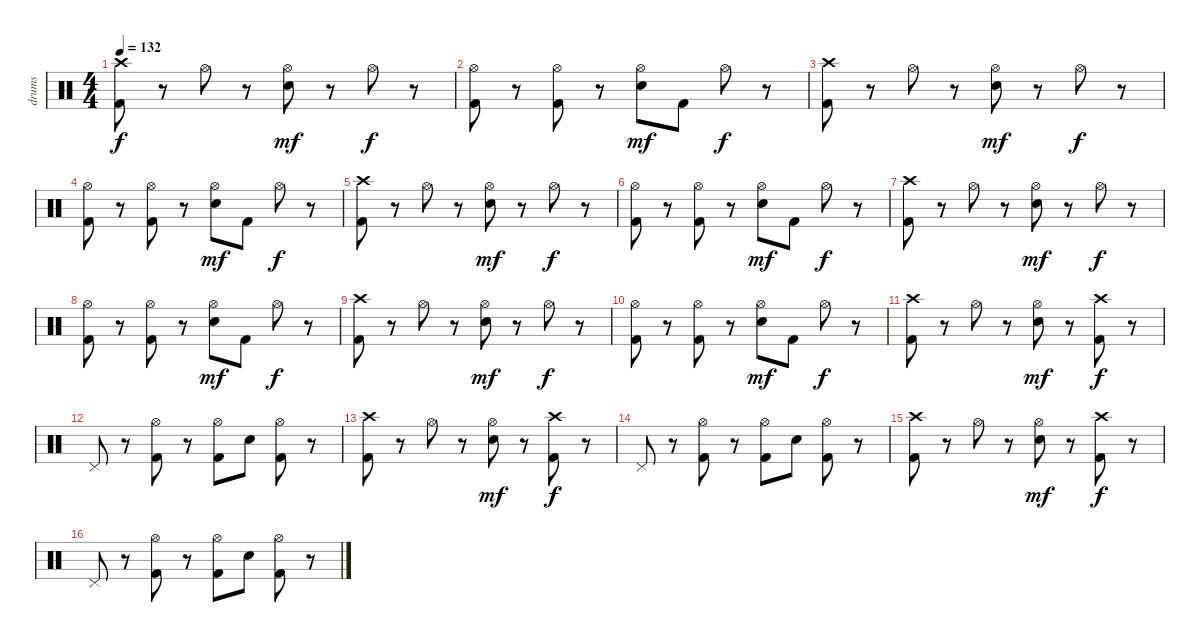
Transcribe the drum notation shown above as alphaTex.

\track ("drums" "drums") {instrument percussion}
\staff {score}
\articulation defaults
\ts (4 4)
\tempo 132
\clef neutral
\ks c
("Crash high (hit)" "Kick (hit) 2").8{dy f} r.8 "Hi-Hat (open)".8 r.8 ("Hi-Hat (open)" "Snare (hit) 2").8{dy mf} r.8 "Hi-Hat (open)".8{dy f} r.8 |
("Hi-Hat (open)" "Kick (hit) 2").8 r.8 ("Hi-Hat (open)" "Kick (hit) 2").8 r.8 ("Hi-Hat (open)" "Snare (hit) 2").8{dy mf} "Kick (hit) 2".8 "Hi-Hat (open)".8{dy f} r.8 |
("Crash high (hit)" "Kick (hit) 2").8 r.8 "Hi-Hat (open)".8 r.8 ("Hi-Hat (open)" "Snare (hit) 2").8{dy mf} r.8 "Hi-Hat (open)".8{dy f} r.8 |
("Hi-Hat (open)" "Kick (hit) 2").8 r.8 ("Hi-Hat (open)" "Kick (hit) 2").8 r.8 ("Hi-Hat (open)" "Snare (hit) 2").8{dy mf} "Kick (hit) 2".8 "Hi-Hat (open)".8{dy f} r.8 |
("Crash high (hit)" "Kick (hit) 2").8 r.8 "Hi-Hat (open)".8 r.8 ("Hi-Hat (open)" "Snare (hit) 2").8{dy mf} r.8 "Hi-Hat (open)".8{dy f} r.8 |
("Hi-Hat (open)" "Kick (hit) 2").8 r.8 ("Hi-Hat (open)" "Kick (hit) 2").8 r.8 ("Hi-Hat (open)" "Snare (hit) 2").8{dy mf} "Kick (hit) 2".8 "Hi-Hat (open)".8{dy f} r.8 |
("Crash high (hit)" "Kick (hit) 2").8 r.8 "Hi-Hat (open)".8 r.8 ("Hi-Hat (open)" "Snare (hit) 2").8{dy mf} r.8 "Hi-Hat (open)".8{dy f} r.8 |
("Hi-Hat (open)" "Kick (hit) 2").8 r.8 ("Hi-Hat (open)" "Kick (hit) 2").8 r.8 ("Hi-Hat (open)" "Snare (hit) 2").8{dy mf} "Kick (hit) 2".8 "Hi-Hat (open)".8{dy f} r.8 |
("Crash high (hit)" "Kick (hit) 2").8 r.8 "Hi-Hat (open)".8 r.8 ("Hi-Hat (open)" "Snare (hit) 2").8{dy mf} r.8 "Hi-Hat (open)".8{dy f} r.8 |
("Hi-Hat (open)" "Kick (hit) 2").8 r.8 ("Hi-Hat (open)" "Kick (hit) 2").8 r.8 ("Hi-Hat (open)" "Snare (hit) 2").8{dy mf} "Kick (hit) 2".8 "Hi-Hat (open)".8{dy f} r.8 |
("Crash high (hit)" "Kick (hit) 2").8 r.8 "Hi-Hat (open)".8 r.8 ("Hi-Hat (open)" "Snare (hit) 2").8{dy mf} r.8 ("Crash high (hit)" "Kick (hit) 2").8{dy f} r.8 |
"Pedal Hi-Hat (hit)".8 r.8 ("Hi-Hat (open)" "Kick (hit) 2").8 r.8 ("Hi-Hat (open)" "Kick (hit) 2").8 "Snare (hit) 2".8 ("Hi-Hat (open)" "Kick (hit) 2").8 r.8 |
("Crash high (hit)" "Kick (hit) 2").8 r.8 "Hi-Hat (open)".8 r.8 ("Hi-Hat (open)" "Snare (hit) 2").8{dy mf} r.8 ("Crash high (hit)" "Kick (hit) 2").8{dy f} r.8 |
"Pedal Hi-Hat (hit)".8 r.8 ("Hi-Hat (open)" "Kick (hit) 2").8 r.8 ("Hi-Hat (open)" "Kick (hit) 2").8 "Snare (hit) 2".8 ("Hi-Hat (open)" "Kick (hit) 2").8 r.8 |
("Crash high (hit)" "Kick (hit) 2").8 r.8 "Hi-Hat (open)".8 r.8 ("Hi-Hat (open)" "Snare (hit) 2").8{dy mf} r.8 ("Crash high (hit)" "Kick (hit) 2").8{dy f} r.8 |
"Pedal Hi-Hat (hit)".8 r.8 ("Hi-Hat (open)" "Kick (hit) 2").8 r.8 ("Hi-Hat (open)" "Kick (hit) 2").8 "Snare (hit) 2".8 ("Hi-Hat (open)" "Kick (hit) 2").8 r.8
